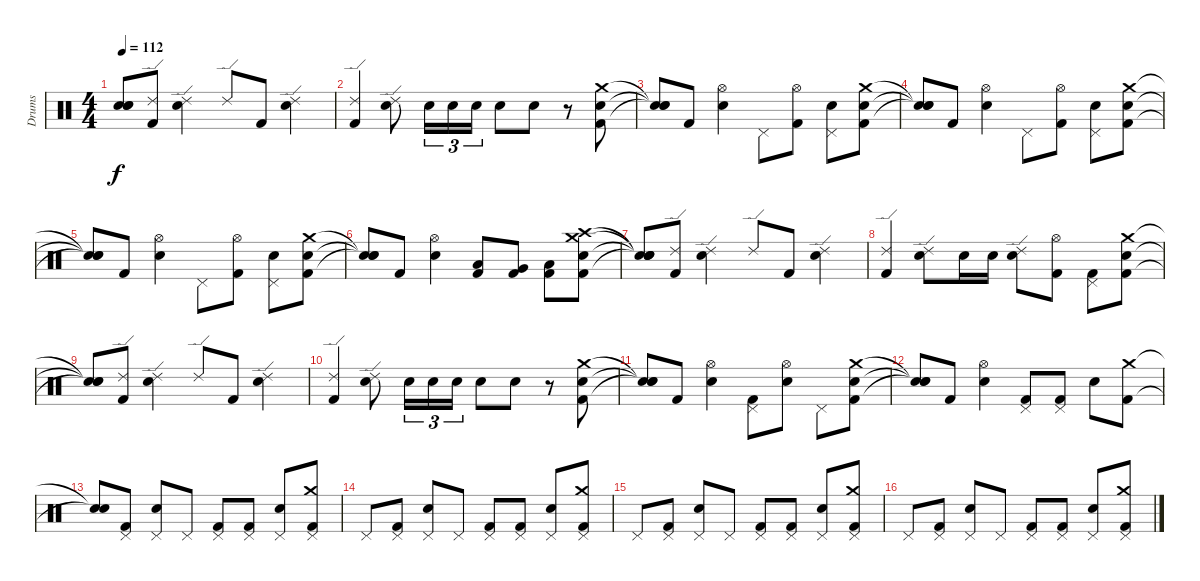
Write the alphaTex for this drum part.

\track ("Drums" "Drums") {instrument percussion}
\staff {score}
\articulation defaults
\ts (4 4)
\tempo 112
\clef neutral
\ks c
("Snare (hit)"{t} "Snare (hit)"{t} "Snare (hit)"{t}).8{dy f} ("Kick (hit) 2" "Ride (edge) 2").8 ("Ride (edge) 2" "Snare (hit) 2").4 "Ride (edge) 2".8 "Kick (hit) 2".8 ("Snare (hit) 2" "Ride (edge) 2").4 |
("Ride (edge) 2" "Kick (hit) 2").4 ("Ride (edge) 2" "Snare (hit) 2").8 "Snare (hit) 2".16{tu (3 2)} "Snare (hit) 2".16{tu (3 2)} "Snare (hit) 2".16{tu (3 2)} "Snare (hit) 2".8 "Snare (hit) 2".8 r.8 ("Snare (hit) 2" "Kick (hit) 2" "Crash medium (hit)").8 |
("Snare (hit)"{t} "Snare (hit)"{t} "Snare (hit)"{t}).8 "Kick (hit) 2".8 ("Hi-Hat (open)" "Snare (hit) 2").4 "Pedal Hi-Hat (hit)".8 ("Kick (hit) 2" "Hi-Hat (open)").8 ("Snare (hit) 2" "Pedal Hi-Hat (hit)").8 ("Kick (hit) 2" "Snare (hit) 2" "Crash medium (hit)").8 |
("Snare (hit)"{t} "Snare (hit)"{t} "Snare (hit)"{t}).8 "Kick (hit) 2".8 ("Snare (hit) 2" "Hi-Hat (open)").4 "Pedal Hi-Hat (hit)".8 ("Kick (hit) 2" "Hi-Hat (open)").8 ("Snare (hit) 2" "Pedal Hi-Hat (hit)").8 ("Crash medium (hit)" "Snare (hit) 2" "Kick (hit) 2").8 |
("Snare (hit)"{t} "Snare (hit)"{t} "Snare (hit)"{t}).8 "Kick (hit) 2".8 ("Snare (hit) 2" "Hi-Hat (open)").4 "Pedal Hi-Hat (hit)".8 ("Kick (hit) 2" "Hi-Hat (open)").8 ("Snare (hit) 2" "Pedal Hi-Hat (hit)").8 ("Crash medium (hit)" "Snare (hit) 2" "Kick (hit) 2").8 |
("Snare (hit)"{t} "Snare (hit)"{t} "Snare (hit)"{t}).8 "Kick (hit) 2".8 ("Hi-Hat (open)" "Snare (hit) 2").4 ("Kick (hit) 2" "Low Tom (hit)").8 ("Kick (hit) 2" "Very Low Tom (hit)").8 ("Kick (hit) 2" "Low Floor Tom (hit)").8 ("Crash medium (hit)" "Crash high (hit)" "Snare (hit) 2" "Kick (hit) 2").8 |
("Snare (hit)"{t} "Snare (hit)"{t} "Snare (hit)"{t} "Snare (hit)"{t}).8 ("Kick (hit) 2" "Ride (edge) 2").8 ("Snare (hit) 2" "Ride (edge) 2").4 "Ride (edge) 2".8 "Kick (hit) 2".8 ("Snare (hit) 2" "Ride (edge) 2").4 |
("Ride (edge) 2" "Kick (hit) 2").4 ("Ride (edge) 2" "Snare (hit) 2").8 "Snare (hit) 2".16 "Snare (hit) 2".16 ("Ride (edge) 2" "Snare (hit) 2").8 ("Hi-Hat (open)" "Kick (hit) 2").8 ("Pedal Hi-Hat (hit)" "Kick (hit) 2").8 ("Snare (hit) 2" "Crash medium (hit)" "Kick (hit) 2").8 |
("Snare (hit)"{t} "Snare (hit)"{t} "Snare (hit)"{t}).8 ("Ride (edge) 2" "Kick (hit) 2").8 ("Snare (hit) 2" "Ride (edge) 2").4 "Ride (edge) 2".8 "Kick (hit) 2".8 ("Snare (hit) 2" "Ride (edge) 2").4 |
("Kick (hit) 2" "Ride (edge) 2").4 ("Snare (hit) 2" "Ride (edge) 2").8 "Snare (hit) 2".16{tu (3 2)} "Snare (hit) 2".16{tu (3 2)} "Snare (hit) 2".16{tu (3 2)} "Snare (hit) 2".8 "Snare (hit) 2".8 r.8 ("Crash medium (hit)" "Snare (hit) 2" "Kick (hit) 2").8 |
("Snare (hit)"{t} "Snare (hit)"{t} "Snare (hit)"{t}).8 "Kick (hit) 2".8 ("Hi-Hat (open)" "Snare (hit) 2").4 ("Pedal Hi-Hat (hit)" "Kick (hit) 2").8 ("Hi-Hat (open)" "Snare (hit) 2").8 "Pedal Hi-Hat (hit)".8 ("Crash medium (hit)" "Snare (hit) 2" "Kick (hit) 2").8 |
("Snare (hit)"{t} "Snare (hit)"{t} "Snare (hit)"{t}).8 "Kick (hit) 2".8 ("Hi-Hat (open)" "Snare (hit) 2").4 ("Pedal Hi-Hat (hit)" "Kick (hit) 2").8 ("Pedal Hi-Hat (hit)" "Kick (hit) 2").8 "Snare (hit) 2".8 ("Kick (hit) 2" "Crash medium (hit)").8 |
("Snare (hit)"{t} "Snare (hit)"{t}).8 ("Pedal Hi-Hat (hit)" "Kick (hit) 2").8 ("Pedal Hi-Hat (hit)" "Snare (hit) 2").8 "Pedal Hi-Hat (hit)".8 ("Pedal Hi-Hat (hit)" "Kick (hit) 2").8 ("Pedal Hi-Hat (hit)" "Kick (hit) 2").8 ("Pedal Hi-Hat (hit)" "Snare (hit) 2").8 ("Pedal Hi-Hat (hit)" "Crash medium (hit)" "Kick (hit) 2").8 |
"Pedal Hi-Hat (hit)".8 ("Pedal Hi-Hat (hit)" "Kick (hit) 2").8 ("Pedal Hi-Hat (hit)" "Snare (hit) 2").8 "Pedal Hi-Hat (hit)".8 ("Pedal Hi-Hat (hit)" "Kick (hit) 2").8 ("Pedal Hi-Hat (hit)" "Kick (hit) 2").8 ("Pedal Hi-Hat (hit)" "Snare (hit) 2").8 ("Pedal Hi-Hat (hit)" "Crash medium (hit)" "Kick (hit) 2").8 |
"Pedal Hi-Hat (hit)".8 ("Pedal Hi-Hat (hit)" "Kick (hit) 2").8 ("Pedal Hi-Hat (hit)" "Snare (hit) 2").8 "Pedal Hi-Hat (hit)".8 ("Pedal Hi-Hat (hit)" "Kick (hit) 2").8 ("Pedal Hi-Hat (hit)" "Kick (hit) 2").8 ("Pedal Hi-Hat (hit)" "Snare (hit) 2").8 ("Pedal Hi-Hat (hit)" "Crash medium (hit)" "Kick (hit) 2").8 |
"Pedal Hi-Hat (hit)".8 ("Pedal Hi-Hat (hit)" "Kick (hit) 2").8 ("Pedal Hi-Hat (hit)" "Snare (hit) 2").8 "Pedal Hi-Hat (hit)".8 ("Pedal Hi-Hat (hit)" "Kick (hit) 2").8 ("Pedal Hi-Hat (hit)" "Kick (hit) 2").8 ("Pedal Hi-Hat (hit)" "Snare (hit) 2").8 ("Pedal Hi-Hat (hit)" "Crash medium (hit)" "Kick (hit) 2").8
